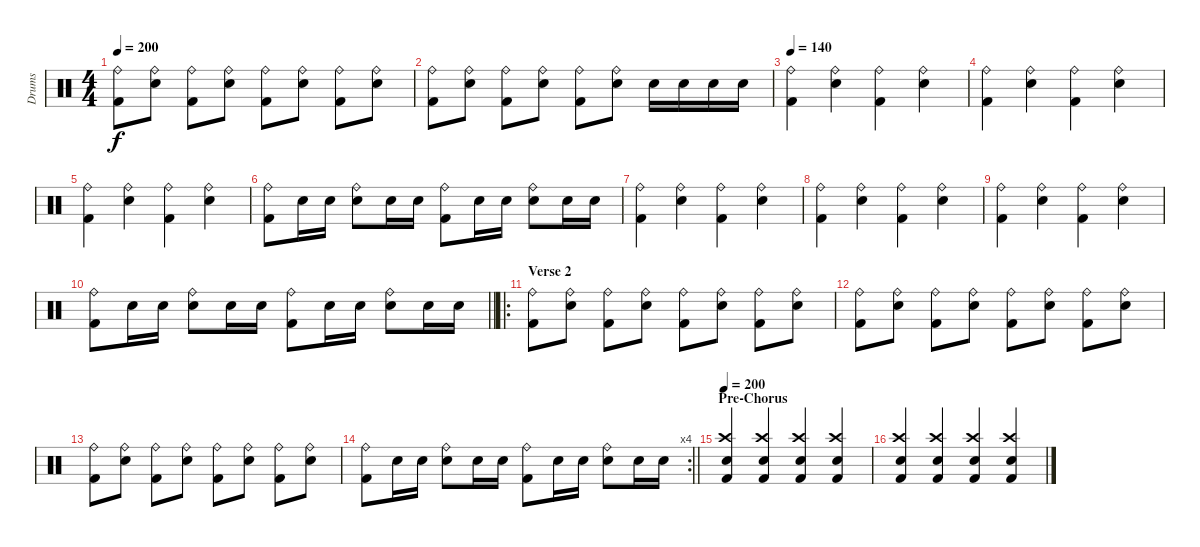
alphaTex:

\track ("Drums" "Drums") {instrument percussion}
\staff {score}
\articulation defaults
\ts (4 4)
\tempo 200
\clef neutral
\ks c
("Ride (bell)" "Kick (hit) 2").8{dy f} ("Ride (bell)" "Snare (hit) 2").8 ("Ride (bell)" "Kick (hit) 2").8 ("Ride (bell)" "Snare (hit) 2").8 ("Ride (bell)" "Kick (hit) 2").8 ("Ride (bell)" "Snare (hit) 2").8 ("Ride (bell)" "Kick (hit) 2").8 ("Ride (bell)" "Snare (hit) 2").8 |
("Ride (bell)" "Kick (hit) 2").8 ("Ride (bell)" "Snare (hit) 2").8 ("Ride (bell)" "Kick (hit) 2").8 ("Ride (bell)" "Snare (hit) 2").8 ("Ride (bell)" "Kick (hit) 2").8 ("Ride (bell)" "Snare (hit) 2").8 "Snare (hit) 2".16 "Snare (hit) 2".16 "Snare (hit) 2".16 "Snare (hit) 2".16 |
\tempo 140
("Ride (bell)" "Kick (hit) 2").4 ("Ride (bell)" "Snare (hit) 2").4 ("Ride (bell)" "Kick (hit) 2").4 ("Ride (bell)" "Snare (hit) 2").4 |
("Ride (bell)" "Kick (hit) 2").4 ("Ride (bell)" "Snare (hit) 2").4 ("Ride (bell)" "Kick (hit) 2").4 ("Ride (bell)" "Snare (hit) 2").4 |
("Ride (bell)" "Kick (hit) 2").4 ("Ride (bell)" "Snare (hit) 2").4 ("Ride (bell)" "Kick (hit) 2").4 ("Ride (bell)" "Snare (hit) 2").4 |
("Ride (bell)" "Kick (hit) 2").8 "Snare (hit) 2".16 "Snare (hit) 2".16 ("Ride (bell)" "Snare (hit) 2").8 "Snare (hit) 2".16 "Snare (hit) 2".16 ("Ride (bell)" "Kick (hit) 2").8 "Snare (hit) 2".16 "Snare (hit) 2".16 ("Ride (bell)" "Snare (hit) 2").8 "Snare (hit) 2".16 "Snare (hit) 2".16 |
("Ride (bell)" "Kick (hit) 2").4 ("Ride (bell)" "Snare (hit) 2").4 ("Ride (bell)" "Kick (hit) 2").4 ("Ride (bell)" "Snare (hit) 2").4 |
("Ride (bell)" "Kick (hit) 2").4 ("Ride (bell)" "Snare (hit) 2").4 ("Ride (bell)" "Kick (hit) 2").4 ("Ride (bell)" "Snare (hit) 2").4 |
("Ride (bell)" "Kick (hit) 2").4 ("Ride (bell)" "Snare (hit) 2").4 ("Ride (bell)" "Kick (hit) 2").4 ("Ride (bell)" "Snare (hit) 2").4 |
\barLineRight lightlight
("Ride (bell)" "Kick (hit) 2").8 "Snare (hit) 2".16 "Snare (hit) 2".16 ("Ride (bell)" "Snare (hit) 2").8 "Snare (hit) 2".16 "Snare (hit) 2".16 ("Ride (bell)" "Kick (hit) 2").8 "Snare (hit) 2".16 "Snare (hit) 2".16 ("Ride (bell)" "Snare (hit) 2").8 "Snare (hit) 2".16 "Snare (hit) 2".16 |
\ro
\section ("" "Verse 2")
("Ride (bell)" "Kick (hit) 2").8 ("Ride (bell)" "Snare (hit) 2").8 ("Ride (bell)" "Kick (hit) 2").8 ("Ride (bell)" "Snare (hit) 2").8 ("Ride (bell)" "Kick (hit) 2").8 ("Ride (bell)" "Snare (hit) 2").8 ("Ride (bell)" "Kick (hit) 2").8 ("Ride (bell)" "Snare (hit) 2").8 |
("Ride (bell)" "Kick (hit) 2").8 ("Ride (bell)" "Snare (hit) 2").8 ("Ride (bell)" "Kick (hit) 2").8 ("Ride (bell)" "Snare (hit) 2").8 ("Ride (bell)" "Kick (hit) 2").8 ("Ride (bell)" "Snare (hit) 2").8 ("Ride (bell)" "Kick (hit) 2").8 ("Ride (bell)" "Snare (hit) 2").8 |
("Ride (bell)" "Kick (hit) 2").8 ("Ride (bell)" "Snare (hit) 2").8 ("Ride (bell)" "Kick (hit) 2").8 ("Ride (bell)" "Snare (hit) 2").8 ("Ride (bell)" "Kick (hit) 2").8 ("Ride (bell)" "Snare (hit) 2").8 ("Ride (bell)" "Kick (hit) 2").8 ("Ride (bell)" "Snare (hit) 2").8 |
\rc 4
\barLineRight lightlight
("Ride (bell)" "Kick (hit) 2").8 "Snare (hit) 2".16 "Snare (hit) 2".16 ("Ride (bell)" "Snare (hit) 2").8 "Snare (hit) 2".16 "Snare (hit) 2".16 ("Ride (bell)" "Kick (hit) 2").8 "Snare (hit) 2".16 "Snare (hit) 2".16 ("Ride (bell)" "Snare (hit) 2").8 "Snare (hit) 2".16 "Snare (hit) 2".16 |
\section ("" "Pre-Chorus")
\tempo 200
("Crash high (hit)" "Electric Snare (hit)" "Kick (hit) 2").4 ("Crash high (hit)" "Electric Snare (hit)" "Kick (hit) 2").4 ("Crash high (hit)" "Electric Snare (hit)" "Kick (hit) 2").4 ("Crash high (hit)" "Electric Snare (hit)" "Kick (hit) 2").4 |
("Crash high (hit)" "Electric Snare (hit)" "Kick (hit) 2").4 ("Crash high (hit)" "Electric Snare (hit)" "Kick (hit) 2").4 ("Crash high (hit)" "Electric Snare (hit)" "Kick (hit) 2").4 ("Crash high (hit)" "Electric Snare (hit)" "Kick (hit) 2").4
